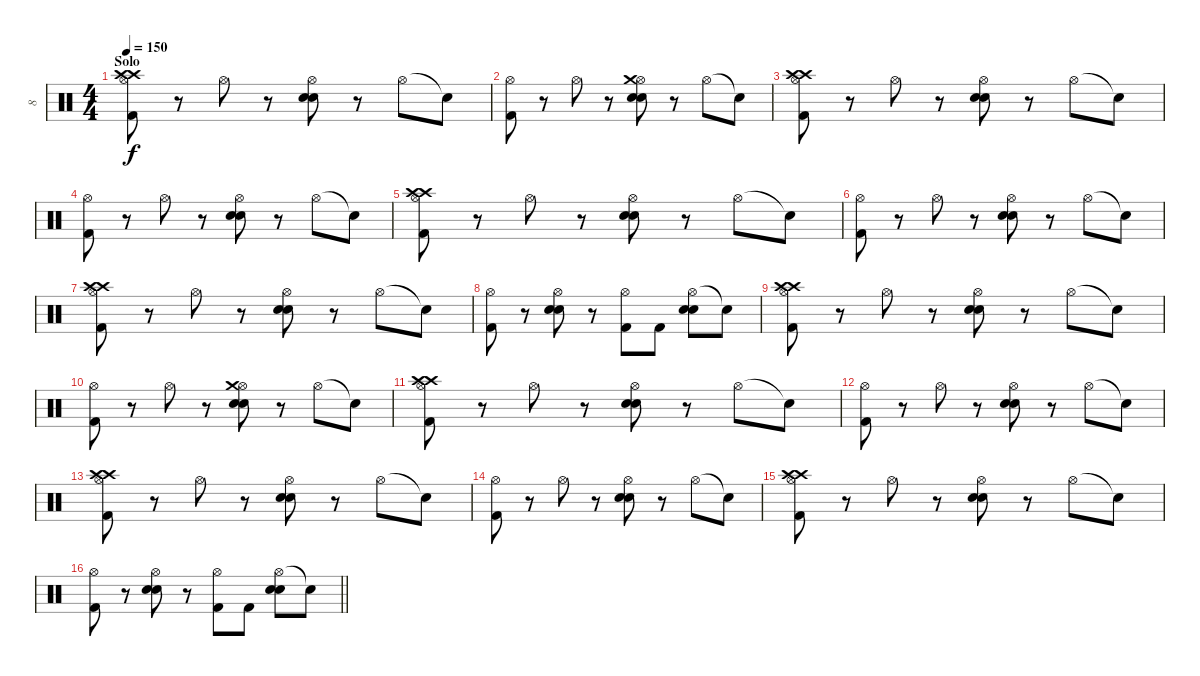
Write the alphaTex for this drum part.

\track ("8" "8") {instrument percussion}
\staff {score}
\articulation defaults
\ts (4 4)
\section ("" "Solo")
\tempo 150
\clef neutral
\ks c
("Hi-Hat (open)" "Crash high (hit)" "Crash high (hit)" "Kick (hit) 2").8{dy f} r.8 "Hi-Hat (open)".8 r.8 ("Hi-Hat (open)" "Snare (hit) 2" "Electric Snare (hit)").8 r.8 "Hi-Hat (open)".8 "Snare (hit)"{t}.8 |
("Hi-Hat (open)" "Kick (hit) 2").8 r.8 "Hi-Hat (open)".8 r.8 ("Hi-Hat (open)" "Crash medium (hit)" "Snare (hit) 2" "Electric Snare (hit)").8 r.8 "Hi-Hat (open)".8 "Snare (hit)"{t}.8 |
("Hi-Hat (open)" "Crash high (hit)" "Crash high (hit)" "Kick (hit) 2").8 r.8 "Hi-Hat (open)".8 r.8 ("Hi-Hat (open)" "Snare (hit) 2" "Electric Snare (hit)").8 r.8 "Hi-Hat (open)".8 "Snare (hit)"{t}.8 |
("Hi-Hat (open)" "Kick (hit) 2").8 r.8 "Hi-Hat (open)".8 r.8 ("Hi-Hat (open)" "Snare (hit) 2" "Electric Snare (hit)").8 r.8 "Hi-Hat (open)".8 "Snare (hit)"{t}.8 |
("Hi-Hat (open)" "Crash high (hit)" "Crash high (hit)" "Kick (hit) 2").8 r.8 "Hi-Hat (open)".8 r.8 ("Hi-Hat (open)" "Snare (hit) 2" "Electric Snare (hit)").8 r.8 "Hi-Hat (open)".8 "Snare (hit)"{t}.8 |
("Hi-Hat (open)" "Kick (hit) 2").8 r.8 "Hi-Hat (open)".8 r.8 ("Hi-Hat (open)" "Snare (hit) 2" "Electric Snare (hit)").8 r.8 "Hi-Hat (open)".8 "Snare (hit)"{t}.8 |
("Hi-Hat (open)" "Crash high (hit)" "Crash high (hit)" "Kick (hit) 2").8 r.8 "Hi-Hat (open)".8 r.8 ("Hi-Hat (open)" "Snare (hit) 2" "Electric Snare (hit)").8 r.8 "Hi-Hat (open)".8 "Snare (hit)"{t}.8 |
("Hi-Hat (open)" "Kick (hit) 2").8 r.8 ("Hi-Hat (open)" "Snare (hit) 2" "Electric Snare (hit)").8 r.8 ("Hi-Hat (open)" "Kick (hit) 2").8 "Kick (hit) 2".8 ("Hi-Hat (open)" "Electric Snare (hit)" "Snare (hit) 2").8 "Snare (hit)"{t}.8 |
("Hi-Hat (open)" "Crash high (hit)" "Crash high (hit)" "Kick (hit) 2").8 r.8 "Hi-Hat (open)".8 r.8 ("Hi-Hat (open)" "Snare (hit) 2" "Electric Snare (hit)").8 r.8 "Hi-Hat (open)".8 "Snare (hit)"{t}.8 |
("Hi-Hat (open)" "Kick (hit) 2").8 r.8 "Hi-Hat (open)".8 r.8 ("Hi-Hat (open)" "Crash medium (hit)" "Snare (hit) 2" "Electric Snare (hit)").8 r.8 "Hi-Hat (open)".8 "Snare (hit)"{t}.8 |
("Hi-Hat (open)" "Crash high (hit)" "Crash high (hit)" "Kick (hit) 2").8 r.8 "Hi-Hat (open)".8 r.8 ("Hi-Hat (open)" "Snare (hit) 2" "Electric Snare (hit)").8 r.8 "Hi-Hat (open)".8 "Snare (hit)"{t}.8 |
("Hi-Hat (open)" "Kick (hit) 2").8 r.8 "Hi-Hat (open)".8 r.8 ("Hi-Hat (open)" "Snare (hit) 2" "Electric Snare (hit)").8 r.8 "Hi-Hat (open)".8 "Snare (hit)"{t}.8 |
("Hi-Hat (open)" "Crash high (hit)" "Crash high (hit)" "Kick (hit) 2").8 r.8 "Hi-Hat (open)".8 r.8 ("Hi-Hat (open)" "Snare (hit) 2" "Electric Snare (hit)").8 r.8 "Hi-Hat (open)".8 "Snare (hit)"{t}.8 |
("Hi-Hat (open)" "Kick (hit) 2").8 r.8 "Hi-Hat (open)".8 r.8 ("Hi-Hat (open)" "Snare (hit) 2" "Electric Snare (hit)").8 r.8 "Hi-Hat (open)".8 "Snare (hit)"{t}.8 |
("Hi-Hat (open)" "Crash high (hit)" "Crash high (hit)" "Kick (hit) 2").8 r.8 "Hi-Hat (open)".8 r.8 ("Hi-Hat (open)" "Snare (hit) 2" "Electric Snare (hit)").8 r.8 "Hi-Hat (open)".8 "Snare (hit)"{t}.8 |
\barLineRight lightlight
("Hi-Hat (open)" "Kick (hit) 2").8 r.8 ("Hi-Hat (open)" "Snare (hit) 2" "Electric Snare (hit)").8 r.8 ("Hi-Hat (open)" "Kick (hit) 2").8 "Kick (hit) 2".8 ("Hi-Hat (open)" "Electric Snare (hit)" "Snare (hit) 2").8 "Snare (hit)"{t}.8
